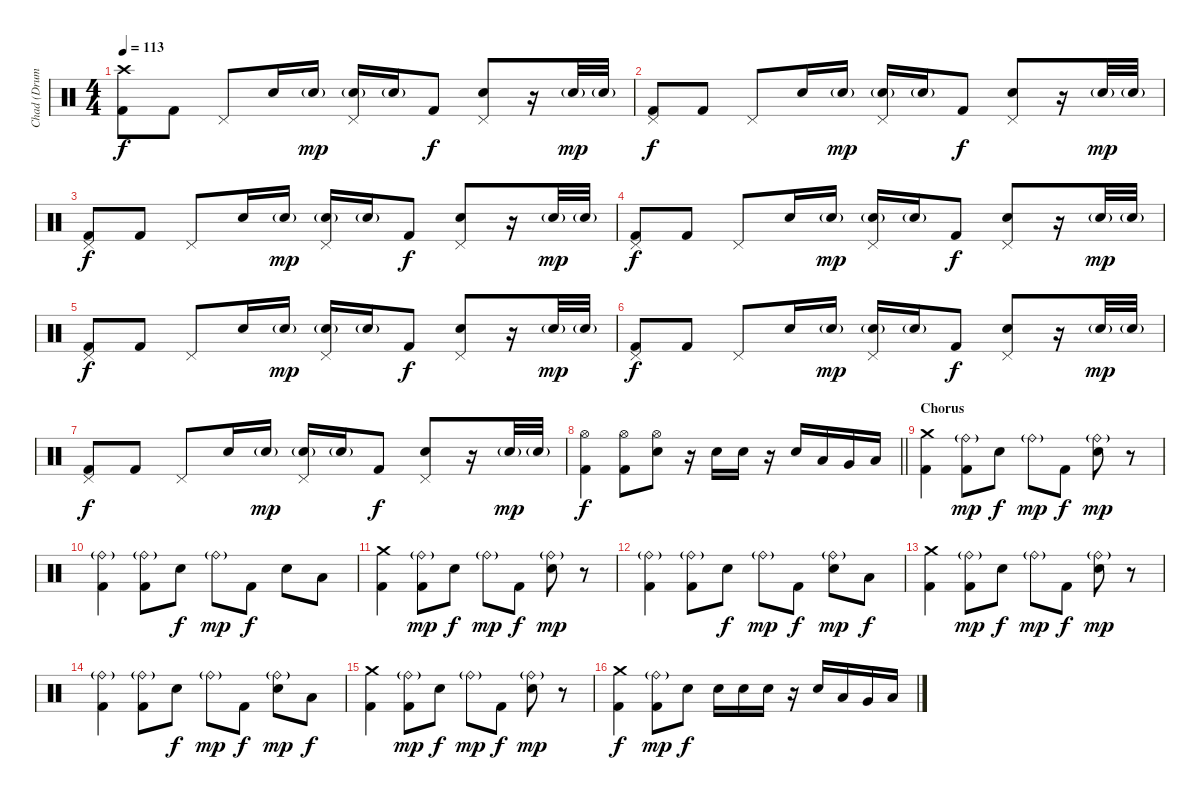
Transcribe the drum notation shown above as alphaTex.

\track ("Chad (Drums)" "Chad (Drum") {instrument percussion}
\staff {score}
\articulation defaults
\ts (4 4)
\tempo 113
\clef neutral
\ks c
("Crash high (hit)" "Kick (hit) 2").8{dy f} "Kick (hit) 2".8 "Pedal Hi-Hat (hit)".8 "Snare (hit) 2".16 "Snare (hit) 2"{g}.16{dy mp} ("Pedal Hi-Hat (hit)" "Snare (hit) 2"{g}).16 "Snare (hit) 2"{g}.16 "Kick (hit) 2".8{dy f} ("Pedal Hi-Hat (hit)" "Snare (hit) 2").8 r.16 "Snare (hit) 2"{g}.32{dy mp} "Snare (hit) 2"{g}.32 |
("Pedal Hi-Hat (hit)" "Kick (hit) 2").8{dy f} "Kick (hit) 2".8 "Pedal Hi-Hat (hit)".8 "Snare (hit) 2".16 "Snare (hit) 2"{g}.16{dy mp} ("Pedal Hi-Hat (hit)" "Snare (hit) 2"{g}).16 "Snare (hit) 2"{g}.16 "Kick (hit) 2".8{dy f} ("Pedal Hi-Hat (hit)" "Snare (hit) 2").8 r.16 "Snare (hit) 2"{g}.32{dy mp} "Snare (hit) 2"{g}.32 |
("Pedal Hi-Hat (hit)" "Kick (hit) 2").8{dy f} "Kick (hit) 2".8 "Pedal Hi-Hat (hit)".8 "Snare (hit) 2".16 "Snare (hit) 2"{g}.16{dy mp} ("Pedal Hi-Hat (hit)" "Snare (hit) 2"{g}).16 "Snare (hit) 2"{g}.16 "Kick (hit) 2".8{dy f} ("Pedal Hi-Hat (hit)" "Snare (hit) 2").8 r.16 "Snare (hit) 2"{g}.32{dy mp} "Snare (hit) 2"{g}.32 |
("Pedal Hi-Hat (hit)" "Kick (hit) 2").8{dy f} "Kick (hit) 2".8 "Pedal Hi-Hat (hit)".8 "Snare (hit) 2".16 "Snare (hit) 2"{g}.16{dy mp} ("Pedal Hi-Hat (hit)" "Snare (hit) 2"{g}).16 "Snare (hit) 2"{g}.16 "Kick (hit) 2".8{dy f} ("Pedal Hi-Hat (hit)" "Snare (hit) 2").8 r.16 "Snare (hit) 2"{g}.32{dy mp} "Snare (hit) 2"{g}.32 |
("Pedal Hi-Hat (hit)" "Kick (hit) 2").8{dy f} "Kick (hit) 2".8 "Pedal Hi-Hat (hit)".8 "Snare (hit) 2".16 "Snare (hit) 2"{g}.16{dy mp} ("Pedal Hi-Hat (hit)" "Snare (hit) 2"{g}).16 "Snare (hit) 2"{g}.16 "Kick (hit) 2".8{dy f} ("Pedal Hi-Hat (hit)" "Snare (hit) 2").8 r.16 "Snare (hit) 2"{g}.32{dy mp} "Snare (hit) 2"{g}.32 |
("Pedal Hi-Hat (hit)" "Kick (hit) 2").8{dy f} "Kick (hit) 2".8 "Pedal Hi-Hat (hit)".8 "Snare (hit) 2".16 "Snare (hit) 2"{g}.16{dy mp} ("Pedal Hi-Hat (hit)" "Snare (hit) 2"{g}).16 "Snare (hit) 2"{g}.16 "Kick (hit) 2".8{dy f} ("Pedal Hi-Hat (hit)" "Snare (hit) 2").8 r.16 "Snare (hit) 2"{g}.32{dy mp} "Snare (hit) 2"{g}.32 |
("Pedal Hi-Hat (hit)" "Kick (hit) 2").8{dy f} "Kick (hit) 2".8 "Pedal Hi-Hat (hit)".8 "Snare (hit) 2".16 "Snare (hit) 2"{g}.16{dy mp} ("Pedal Hi-Hat (hit)" "Snare (hit) 2"{g}).16 "Snare (hit) 2"{g}.16 "Kick (hit) 2".8{dy f} ("Pedal Hi-Hat (hit)" "Snare (hit) 2").8 r.16 "Snare (hit) 2"{g}.32{dy mp} "Snare (hit) 2"{g}.32 |
\barLineRight lightlight
("Hi-Hat (open)" "Kick (hit) 2").4{dy f} ("Hi-Hat (open)" "Kick (hit) 2").8 ("Hi-Hat (open)" "Snare (hit) 2").8 r.16 "Snare (hit) 2".16 "Snare (hit) 2".16 r.16 "Snare (hit) 2".16 "Low Tom (hit)".16 "Very Low Tom (hit)".16 "Low Floor Tom (hit)".16 |
\section ("" "Chorus")
("Crash medium (hit)" "Kick (hit) 2").4 ("Ride (bell)"{g} "Kick (hit) 2").8{dy mp} "Snare (hit) 2".8{dy f} "Ride (bell)"{g}.8{dy mp} "Kick (hit) 2".8{dy f} ("Ride (bell)"{g} "Snare (hit) 2").8{dy mp} r.8 |
("Ride (bell)"{g} "Kick (hit) 2").4 ("Ride (bell)"{g} "Kick (hit) 2").8 "Snare (hit) 2".8{dy f} "Ride (bell)"{g}.8{dy mp} "Kick (hit) 2".8{dy f} "Snare (hit) 2".8 "Low Floor Tom (hit)".8 |
("Crash medium (hit)" "Kick (hit) 2").4 ("Ride (bell)"{g} "Kick (hit) 2").8{dy mp} "Snare (hit) 2".8{dy f} "Ride (bell)"{g}.8{dy mp} "Kick (hit) 2".8{dy f} ("Ride (bell)"{g} "Snare (hit) 2").8{dy mp} r.8 |
("Ride (bell)"{g} "Kick (hit) 2").4 ("Ride (bell)"{g} "Kick (hit) 2").8 "Snare (hit) 2".8{dy f} "Ride (bell)"{g}.8{dy mp} "Kick (hit) 2".8{dy f} ("Ride (bell)"{g} "Snare (hit) 2").8{dy mp} "Low Floor Tom (hit)".8{dy f} |
("Crash medium (hit)" "Kick (hit) 2").4 ("Ride (bell)"{g} "Kick (hit) 2").8{dy mp} "Snare (hit) 2".8{dy f} "Ride (bell)"{g}.8{dy mp} "Kick (hit) 2".8{dy f} ("Ride (bell)"{g} "Snare (hit) 2").8{dy mp} r.8 |
("Ride (bell)"{g} "Kick (hit) 2").4 ("Ride (bell)"{g} "Kick (hit) 2").8 "Snare (hit) 2".8{dy f} "Ride (bell)"{g}.8{dy mp} "Kick (hit) 2".8{dy f} ("Ride (bell)"{g} "Snare (hit) 2").8{dy mp} "Low Floor Tom (hit)".8{dy f} |
("Crash medium (hit)" "Kick (hit) 2").4 ("Ride (bell)"{g} "Kick (hit) 2").8{dy mp} "Snare (hit) 2".8{dy f} "Ride (bell)"{g}.8{dy mp} "Kick (hit) 2".8{dy f} ("Ride (bell)"{g} "Snare (hit) 2").8{dy mp} r.8 |
("Crash medium (hit)" "Kick (hit) 2").4{dy f} ("Ride (bell)"{g} "Kick (hit) 2").8{dy mp} "Snare (hit) 2".8{dy f} "Snare (hit) 2".16 "Snare (hit) 2".16 "Snare (hit) 2".16 r.16 "Snare (hit) 2".16 "Low Tom (hit)".16 "Very Low Tom (hit)".16 "Low Floor Tom (hit)".16
